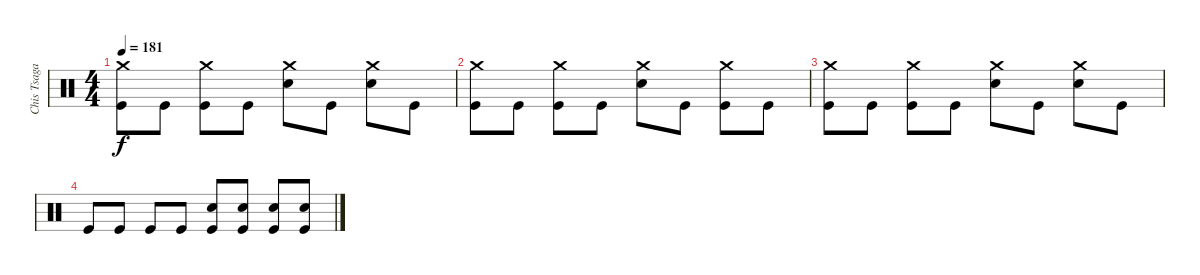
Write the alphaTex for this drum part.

\track ("Chis Tsagakis" "Chis Tsaga") {instrument percussion}
\staff {score}
\articulation defaults
\ts (4 4)
\tempo 181
\clef neutral
\ks c
("Crash medium (hit)" "Kick (hit)").8{dy f} "Kick (hit)".8 ("Crash medium (hit)" "Kick (hit)").8 "Kick (hit)".8 ("Crash medium (hit)" "Electric Snare (hit)").8 "Kick (hit)".8 ("Crash medium (hit)" "Electric Snare (hit)").8 "Kick (hit)".8 |
("Crash medium (hit)" "Kick (hit)").8 "Kick (hit)".8 ("Crash medium (hit)" "Kick (hit)").8 "Kick (hit)".8 ("Crash medium (hit)" "Electric Snare (hit)").8 "Kick (hit)".8 ("Crash medium (hit)" "Kick (hit)").8 "Kick (hit)".8 |
("Crash medium (hit)" "Kick (hit)").8 "Kick (hit)".8 ("Crash medium (hit)" "Kick (hit)").8 "Kick (hit)".8 ("Crash medium (hit)" "Electric Snare (hit)").8 "Kick (hit)".8 ("Crash medium (hit)" "Electric Snare (hit)").8 "Kick (hit)".8 |
"Kick (hit)".8 "Kick (hit)".8 "Kick (hit)".8 "Kick (hit)".8 ("Electric Snare (hit)" "Kick (hit)").8 ("Electric Snare (hit)" "Kick (hit)").8 ("Electric Snare (hit)" "Kick (hit)").8 ("Electric Snare (hit)" "Kick (hit)").8
